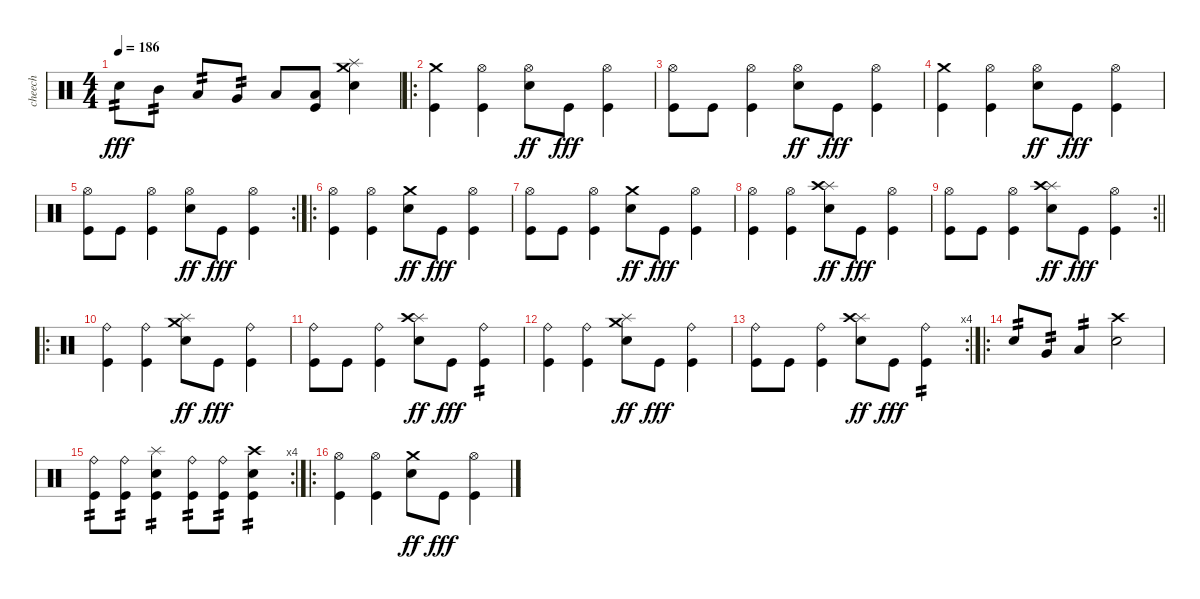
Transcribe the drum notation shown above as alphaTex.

\track ("cheech" "cheech") {instrument percussion}
\staff {score}
\articulation defaults
\ts (4 4)
\tempo 186
\clef neutral
\ks c "Electric Snare (hit)".8{tp 2 dy fff} "Mid Tom (hit)".8{tp 2} "Low Tom (hit)".8{tp 2} "Very Low Tom (hit)".8{tp 2} "Low Floor Tom (hit)".8
("Low Floor Tom (hit)" "Kick (hit)").8 ("Crash medium (hit)" "Electric Snare (hit)" "Splash (hit)").4 |
\ro
("Crash medium (hit)" "Kick (hit)").4 ("Hi-Hat (open)" "Kick (hit)").4 ("Hi-Hat (open)" "Electric Snare (hit)").8{dy ff} "Kick (hit)".8{dy fff} ("Hi-Hat (open)" "Kick (hit)").4 |
("Hi-Hat (open)" "Kick (hit)").8 "Kick (hit)".8 ("Hi-Hat (open)" "Kick (hit)").4 ("Hi-Hat (open)" "Electric Snare (hit)").8{dy ff} "Kick (hit)".8{dy fff} ("Hi-Hat (open)" "Kick (hit)").4 |
("Crash medium (hit)" "Kick (hit)").4 ("Hi-Hat (open)" "Kick (hit)").4 ("Hi-Hat (open)" "Electric Snare (hit)").8{dy ff} "Kick (hit)".8{dy fff} ("Hi-Hat (open)" "Kick (hit)").4 |
\rc 2
("Hi-Hat (open)" "Kick (hit)").8 "Kick (hit)".8 ("Hi-Hat (open)" "Kick (hit)").4 ("Hi-Hat (open)" "Electric Snare (hit)").8{dy ff} "Kick (hit)".8{dy fff} ("Hi-Hat (open)" "Kick (hit)").4 |
\ro
("Hi-Hat (open)" "Kick (hit)").4 ("Hi-Hat (open)" "Kick (hit)").4 ("Crash medium (hit)" "Electric Snare (hit)").8{dy ff} "Kick (hit)".8{dy fff} ("Hi-Hat (open)" "Kick (hit)").4 |
("Hi-Hat (open)" "Kick (hit)").8 "Kick (hit)".8 ("Hi-Hat (open)" "Kick (hit)").4 ("Crash medium (hit)" "Electric Snare (hit)").8{dy ff} "Kick (hit)".8{dy fff} ("Hi-Hat (open)" "Kick (hit)").4 |
("Hi-Hat (open)" "Kick (hit)").4 ("Hi-Hat (open)" "Kick (hit)").4 ("Splash (hit)" "Crash high (hit)" "Electric Snare (hit)").8{dy ff} "Kick (hit)".8{dy fff} ("Hi-Hat (open)" "Kick (hit)").4 |
\rc 2
\barLineRight lightlight
("Hi-Hat (open)" "Kick (hit)").8 "Kick (hit)".8 ("Hi-Hat (open)" "Kick (hit)").4 ("Splash (hit)" "Crash high (hit)" "Electric Snare (hit)").8{dy ff} "Kick (hit)".8{dy fff} ("Hi-Hat (open)" "Kick (hit)").4 |
\ro
("Ride (bell)" "Kick (hit)").4 ("Ride (bell)" "Kick (hit)").4 ("Splash (hit)" "Crash medium (hit)" "Electric Snare (hit)").8{dy ff} "Kick (hit)".8{dy fff} ("Ride (bell)" "Kick (hit)").4 |
("Ride (bell)" "Kick (hit)").8 "Kick (hit)".8 ("Ride (bell)" "Kick (hit)").4 ("Splash (hit)" "Crash high (hit)" "Electric Snare (hit)").8{dy ff} "Kick (hit)".8{dy fff} ("Ride (bell)" "Kick (hit)").4{tp 2} |
("Ride (bell)" "Kick (hit)").4 ("Ride (bell)" "Kick (hit)").4 ("Splash (hit)" "Crash medium (hit)" "Electric Snare (hit)").8{dy ff} "Kick (hit)".8{dy fff} ("Ride (bell)" "Kick (hit)").4 |
\rc 4
("Ride (bell)" "Kick (hit)").8 "Kick (hit)".8 ("Ride (bell)" "Kick (hit)").4 ("Splash (hit)" "Crash high (hit)" "Electric Snare (hit)").8{dy ff} "Kick (hit)".8{dy fff} ("Ride (bell)" "Kick (hit)").4{tp 2} |
\ro "Electric Snare (hit)".8{tp 2} "Very Low Tom (hit)".8{tp 2} "Low Floor Tom (hit)".4{tp 2}
("Crash high (hit)" "Electric Snare (hit)").2 |
\rc 4
("Ride (bell)" "Kick (hit)").8{tp 2} ("Ride (bell)" "Kick (hit)").8{tp 2} ("Splash (hit)" "Electric Snare (hit)" "Kick (hit)").4{tp 2} ("Ride (bell)" "Kick (hit)").8{tp 2} ("Ride (bell)" "Kick (hit)").8{tp 2} ("Crash high (hit)" "Electric Snare (hit)" "Kick (hit)").4{tp 2} |
\ro
("Hi-Hat (open)" "Kick (hit)").4 ("Hi-Hat (open)" "Kick (hit)").4 ("Crash medium (hit)" "Electric Snare (hit)").8{dy ff} "Kick (hit)".8{dy fff} ("Hi-Hat (open)" "Kick (hit)").4
